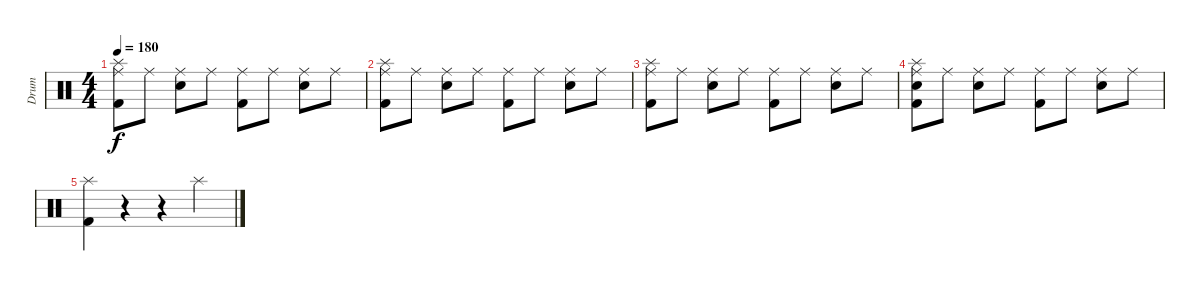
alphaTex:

\track ("Drum" "Drum") {instrument percussion}
\staff {score}
\articulation defaults
\ts (4 4)
\tempo 180
\clef neutral
\ks c
("Ride (middle)" "Kick (hit) 2" "Splash (hit)").8{dy f} "Ride (middle)".8 ("Ride (middle)" "Snare (hit) 2").8 "Ride (middle)".8 ("Ride (middle)" "Kick (hit) 2").8 "Ride (middle)".8 ("Ride (middle)" "Snare (hit) 2").8 "Ride (middle)".8 |
("Ride (middle)" "Kick (hit) 2" "Splash (hit)").8 "Ride (middle)".8 ("Ride (middle)" "Snare (hit) 2").8 "Ride (middle)".8 ("Ride (middle)" "Kick (hit) 2").8 "Ride (middle)".8 ("Ride (middle)" "Snare (hit) 2").8 "Ride (middle)".8 |
("Ride (middle)" "Kick (hit) 2" "Splash (hit)").8 "Ride (middle)".8 ("Ride (middle)" "Snare (hit) 2").8 "Ride (middle)".8 ("Ride (middle)" "Kick (hit) 2").8 "Ride (middle)".8 ("Ride (middle)" "Snare (hit) 2").8 "Ride (middle)".8 |
("Ride (middle)" "Kick (hit) 2" "Splash (hit)" "Snare (hit) 2").8 "Ride (middle)".8 ("Ride (middle)" "Snare (hit) 2").8 "Ride (middle)".8 ("Ride (middle)" "Kick (hit) 2").8 "Ride (middle)".8 ("Ride (middle)" "Snare (hit) 2").8 "Ride (middle)".8 |
("Splash (hit)" "Kick (hit) 2").4 r.4 r.4 "Splash (hit)".4
